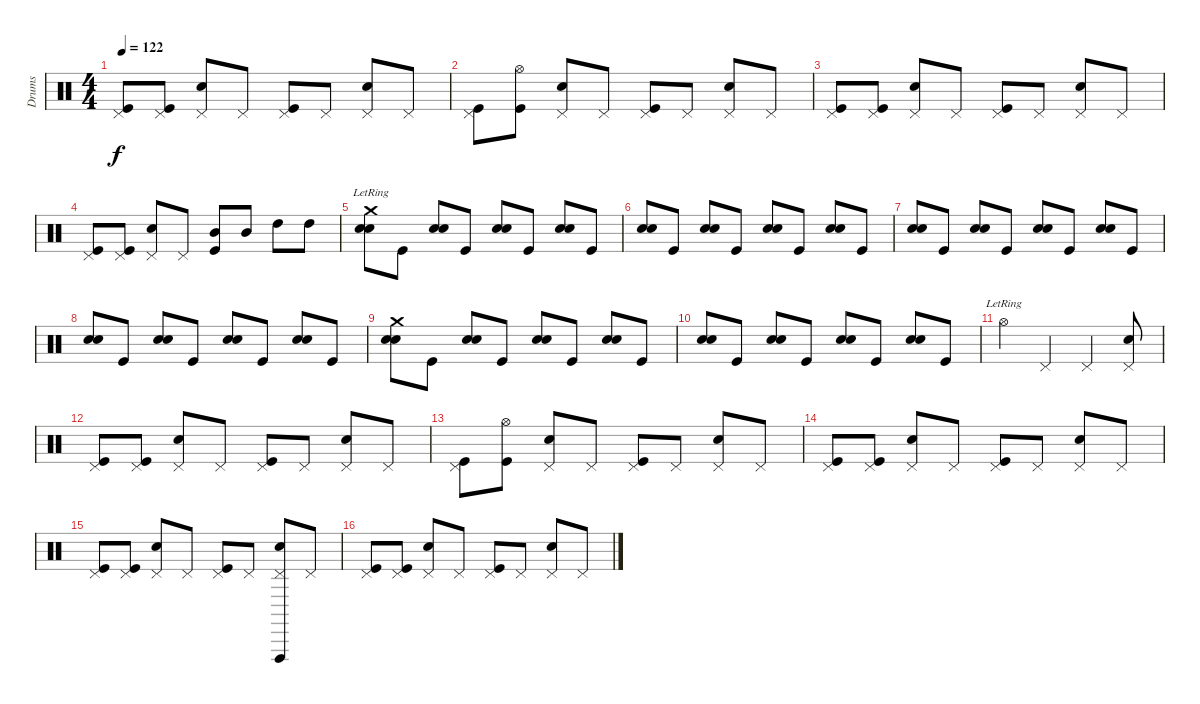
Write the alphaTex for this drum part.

\track ("Drums" "Drums") {instrument percussion}
\staff {score}
\articulation defaults
\ts (4 4)
\tempo 122
\clef neutral
\ks c
("Pedal Hi-Hat (hit)" "Kick (hit)").8{dy f} ("Pedal Hi-Hat (hit)" "Kick (hit)").8 ("Pedal Hi-Hat (hit)" "Snare (hit) 2").8 "Pedal Hi-Hat (hit)".8 ("Pedal Hi-Hat (hit)" "Kick (hit)").8 "Pedal Hi-Hat (hit)".8 ("Pedal Hi-Hat (hit)" "Snare (hit) 2").8 "Pedal Hi-Hat (hit)".8 |
("Pedal Hi-Hat (hit)" "Kick (hit)").8 ("Hi-Hat (open)" "Kick (hit)").8 ("Pedal Hi-Hat (hit)" "Snare (hit) 2").8 "Pedal Hi-Hat (hit)".8 ("Pedal Hi-Hat (hit)" "Kick (hit)").8 "Pedal Hi-Hat (hit)".8 ("Pedal Hi-Hat (hit)" "Snare (hit) 2").8 "Pedal Hi-Hat (hit)".8 |
("Pedal Hi-Hat (hit)" "Kick (hit)").8 ("Pedal Hi-Hat (hit)" "Kick (hit)").8 ("Pedal Hi-Hat (hit)" "Snare (hit) 2").8 "Pedal Hi-Hat (hit)".8 ("Pedal Hi-Hat (hit)" "Kick (hit)").8 "Pedal Hi-Hat (hit)".8 ("Pedal Hi-Hat (hit)" "Snare (hit) 2").8 "Pedal Hi-Hat (hit)".8 |
("Pedal Hi-Hat (hit)" "Kick (hit)").8 ("Pedal Hi-Hat (hit)" "Kick (hit)").8 ("Pedal Hi-Hat (hit)" "Snare (hit) 2").8 "Pedal Hi-Hat (hit)".8 ("Mid Tom (hit)" "Kick (hit)").8 "Mid Tom (hit)".8 "High Tom (hit)".8 "High Tom (hit)".8 |
("Snare (hit) 2" "Snare (hit) 2" "Crash medium (hit)"{lr}).8 "Kick (hit)".8 ("Snare (hit) 2" "Snare (hit) 2").8 "Kick (hit)".8 ("Snare (hit) 2" "Snare (hit) 2").8 "Kick (hit)".8 ("Snare (hit) 2" "Snare (hit) 2").8 "Kick (hit)".8 |
("Snare (hit) 2" "Snare (hit) 2").8 "Kick (hit)".8 ("Snare (hit) 2" "Snare (hit) 2").8 "Kick (hit)".8 ("Snare (hit) 2" "Snare (hit) 2").8 "Kick (hit)".8 ("Snare (hit) 2" "Snare (hit) 2").8 "Kick (hit)".8 |
("Snare (hit) 2" "Snare (hit) 2").8 "Kick (hit)".8 ("Snare (hit) 2" "Snare (hit) 2").8 "Kick (hit)".8 ("Snare (hit) 2" "Snare (hit) 2").8 "Kick (hit)".8 ("Snare (hit) 2" "Snare (hit) 2").8 "Kick (hit)".8 |
("Snare (hit) 2" "Snare (hit) 2").8 "Kick (hit)".8 ("Snare (hit) 2" "Snare (hit) 2").8 "Kick (hit)".8 ("Snare (hit) 2" "Snare (hit) 2").8 "Kick (hit)".8 ("Snare (hit) 2" "Snare (hit) 2").8 "Kick (hit)".8 |
("Snare (hit) 2" "Snare (hit) 2" "Crash medium (hit)").8 "Kick (hit)".8 ("Snare (hit) 2" "Snare (hit) 2").8 "Kick (hit)".8 ("Snare (hit) 2" "Snare (hit) 2").8 "Kick (hit)".8 ("Snare (hit) 2" "Snare (hit) 2").8 "Kick (hit)".8 |
("Snare (hit) 2" "Snare (hit) 2").8 "Kick (hit)".8 ("Snare (hit) 2" "Snare (hit) 2").8 "Kick (hit)".8 ("Snare (hit) 2" "Snare (hit) 2").8 "Kick (hit)".8 ("Snare (hit) 2" "Snare (hit) 2").8 "Kick (hit)".8 |
"Hi-Hat (open)"{lr}.4 "Pedal Hi-Hat (hit)".4 "Pedal Hi-Hat (hit)".4 ("Pedal Hi-Hat (hit)" "Snare (hit) 2").8 |
("Pedal Hi-Hat (hit)" "Kick (hit)").8 ("Pedal Hi-Hat (hit)" "Kick (hit)").8 ("Pedal Hi-Hat (hit)" "Snare (hit) 2").8 "Pedal Hi-Hat (hit)".8 ("Pedal Hi-Hat (hit)" "Kick (hit)").8 "Pedal Hi-Hat (hit)".8 ("Pedal Hi-Hat (hit)" "Snare (hit) 2").8 "Pedal Hi-Hat (hit)".8 |
("Pedal Hi-Hat (hit)" "Kick (hit)").8 ("Hi-Hat (open)" "Kick (hit)").8 ("Pedal Hi-Hat (hit)" "Snare (hit) 2").8 "Pedal Hi-Hat (hit)".8 ("Pedal Hi-Hat (hit)" "Kick (hit)").8 "Pedal Hi-Hat (hit)".8 ("Pedal Hi-Hat (hit)" "Snare (hit) 2").8 "Pedal Hi-Hat (hit)".8 |
("Pedal Hi-Hat (hit)" "Kick (hit)").8 ("Pedal Hi-Hat (hit)" "Kick (hit)").8 ("Pedal Hi-Hat (hit)" "Snare (hit) 2").8 "Pedal Hi-Hat (hit)".8 ("Pedal Hi-Hat (hit)" "Kick (hit)").8 "Pedal Hi-Hat (hit)".8 ("Pedal Hi-Hat (hit)" "Snare (hit) 2").8 "Pedal Hi-Hat (hit)".8 |
("Pedal Hi-Hat (hit)" "Kick (hit)").8 ("Pedal Hi-Hat (hit)" "Kick (hit)").8 ("Pedal Hi-Hat (hit)" "Snare (hit) 2").8 "Pedal Hi-Hat (hit)".8 ("Pedal Hi-Hat (hit)" "Kick (hit)").8 "Pedal Hi-Hat (hit)".8 ("Pedal Hi-Hat (hit)" "Snare (hit) 2" "Vibraslap (hit)").8 "Pedal Hi-Hat (hit)".8 |
("Pedal Hi-Hat (hit)" "Kick (hit)").8 ("Pedal Hi-Hat (hit)" "Kick (hit)").8 ("Pedal Hi-Hat (hit)" "Snare (hit) 2").8 "Pedal Hi-Hat (hit)".8 ("Pedal Hi-Hat (hit)" "Kick (hit)").8 "Pedal Hi-Hat (hit)".8 ("Pedal Hi-Hat (hit)" "Snare (hit) 2").8 "Pedal Hi-Hat (hit)".8
